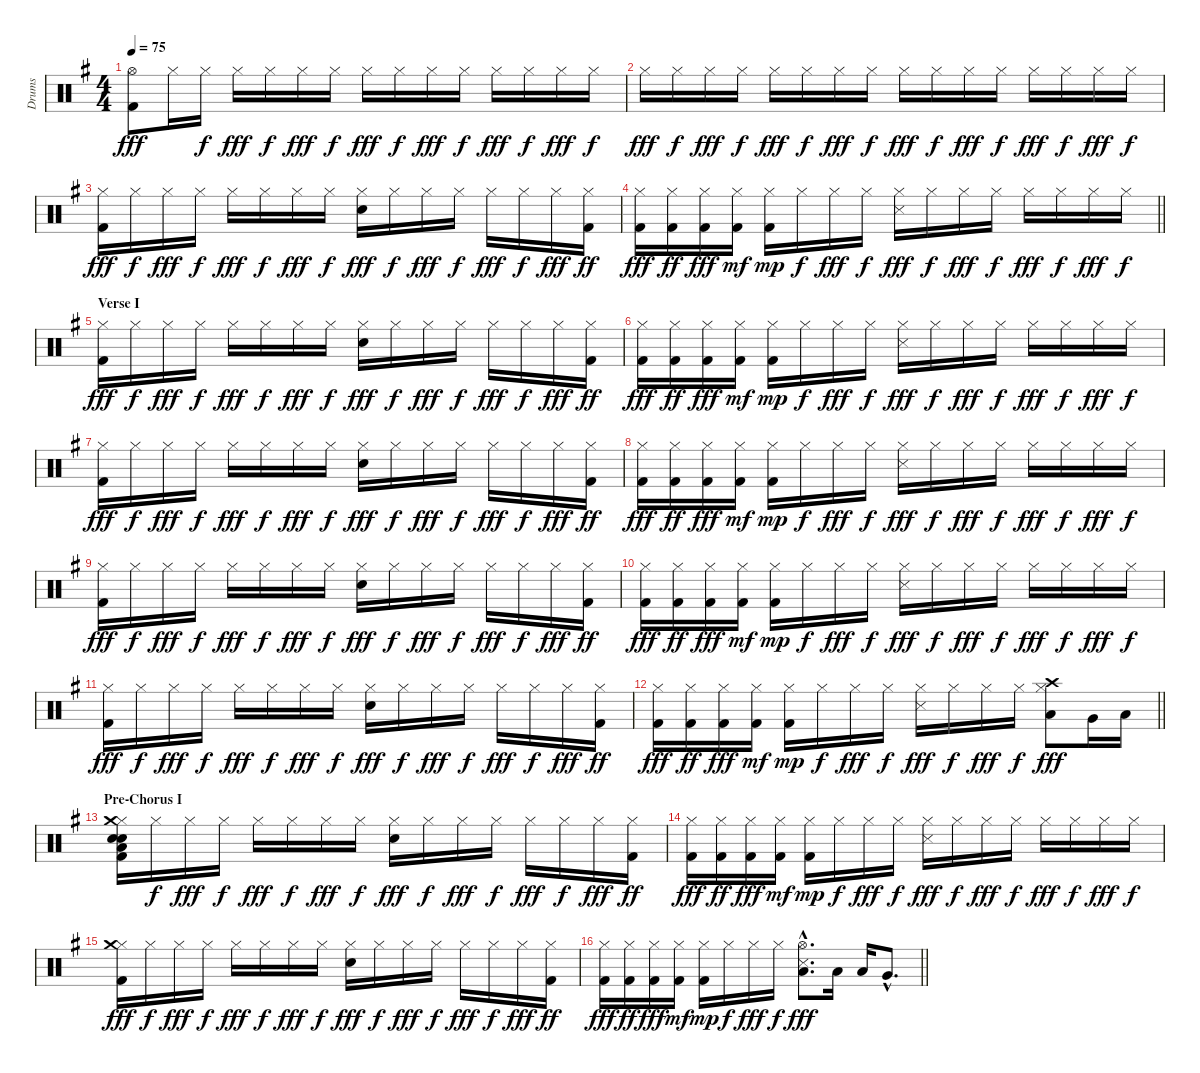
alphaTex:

\track ("Drums" "Drums") {instrument percussion}
\staff {score}
\articulation defaults
\ts (4 4)
\tempo 75
\clef neutral
\ks g
("Hi-Hat (open)" "Kick (hit) 2").8{dy fff} "Hi-Hat (closed)".16 "Hi-Hat (closed)".16{dy f} "Hi-Hat (closed)".16{dy fff} "Hi-Hat (closed)".16{dy f} "Hi-Hat (closed)".16{dy fff} "Hi-Hat (closed)".16{dy f} "Hi-Hat (closed)".16{dy fff} "Hi-Hat (closed)".16{dy f} "Hi-Hat (closed)".16{dy fff} "Hi-Hat (closed)".16{dy f} "Hi-Hat (closed)".16{dy fff} "Hi-Hat (closed)".16{dy f} "Hi-Hat (closed)".16{dy fff} "Hi-Hat (closed)".16{dy f} |
"Hi-Hat (closed)".16{dy fff} "Hi-Hat (closed)".16{dy f} "Hi-Hat (closed)".16{dy fff} "Hi-Hat (closed)".16{dy f} "Hi-Hat (closed)".16{dy fff} "Hi-Hat (closed)".16{dy f} "Hi-Hat (closed)".16{dy fff} "Hi-Hat (closed)".16{dy f} "Hi-Hat (closed)".16{dy fff} "Hi-Hat (closed)".16{dy f} "Hi-Hat (closed)".16{dy fff} "Hi-Hat (closed)".16{dy f} "Hi-Hat (closed)".16{dy fff} "Hi-Hat (closed)".16{dy f} "Hi-Hat (closed)".16{dy fff} "Hi-Hat (closed)".16{dy f} |
("Hi-Hat (closed)" "Kick (hit) 2").16{dy fff} "Hi-Hat (closed)".16{dy f} "Hi-Hat (closed)".16{dy fff} "Hi-Hat (closed)".16{dy f} "Hi-Hat (closed)".16{dy fff} "Hi-Hat (closed)".16{dy f} "Hi-Hat (closed)".16{dy fff} "Hi-Hat (closed)".16{dy f} ("Hi-Hat (closed)" "Snare (hit) 2").16{dy fff} "Hi-Hat (closed)".16{dy f} "Hi-Hat (closed)".16{dy fff} "Hi-Hat (closed)".16{dy f} "Hi-Hat (closed)".16{dy fff} "Hi-Hat (closed)".16{dy f} "Hi-Hat (closed)".16{dy fff} ("Hi-Hat (closed)" "Kick (hit) 2").16{dy ff} |
\barLineRight lightlight
("Hi-Hat (closed)" "Kick (hit) 2").16{dy fff} ("Hi-Hat (closed)" "Kick (hit) 2").16{dy ff} ("Hi-Hat (closed)" "Kick (hit) 2").16{dy fff} ("Hi-Hat (closed)" "Kick (hit) 2").16{dy mf} ("Hi-Hat (closed)" "Kick (hit) 2").16{dy mp} "Hi-Hat (closed)".16{dy f} "Hi-Hat (closed)".16{dy fff} "Hi-Hat (closed)".16{dy f} ("Hi-Hat (closed)" "Snare (side stick) 3").16{dy fff} "Hi-Hat (closed)".16{dy f} "Hi-Hat (closed)".16{dy fff} "Hi-Hat (closed)".16{dy f} "Hi-Hat (closed)".16{dy fff} "Hi-Hat (closed)".16{dy f} "Hi-Hat (closed)".16{dy fff} "Hi-Hat (closed)".16{dy f} |
\section ("" "Verse I")
("Hi-Hat (closed)" "Kick (hit) 2").16{dy fff} "Hi-Hat (closed)".16{dy f} "Hi-Hat (closed)".16{dy fff} "Hi-Hat (closed)".16{dy f} "Hi-Hat (closed)".16{dy fff} "Hi-Hat (closed)".16{dy f} "Hi-Hat (closed)".16{dy fff} "Hi-Hat (closed)".16{dy f} ("Hi-Hat (closed)" "Snare (hit) 2").16{dy fff} "Hi-Hat (closed)".16{dy f} "Hi-Hat (closed)".16{dy fff} "Hi-Hat (closed)".16{dy f} "Hi-Hat (closed)".16{dy fff} "Hi-Hat (closed)".16{dy f} "Hi-Hat (closed)".16{dy fff} ("Hi-Hat (closed)" "Kick (hit) 2").16{dy ff} |
("Hi-Hat (closed)" "Kick (hit) 2").16{dy fff} ("Hi-Hat (closed)" "Kick (hit) 2").16{dy ff} ("Hi-Hat (closed)" "Kick (hit) 2").16{dy fff} ("Hi-Hat (closed)" "Kick (hit) 2").16{dy mf} ("Hi-Hat (closed)" "Kick (hit) 2").16{dy mp} "Hi-Hat (closed)".16{dy f} "Hi-Hat (closed)".16{dy fff} "Hi-Hat (closed)".16{dy f} ("Hi-Hat (closed)" "Snare (side stick) 3").16{dy fff} "Hi-Hat (closed)".16{dy f} "Hi-Hat (closed)".16{dy fff} "Hi-Hat (closed)".16{dy f} "Hi-Hat (closed)".16{dy fff} "Hi-Hat (closed)".16{dy f} "Hi-Hat (closed)".16{dy fff} "Hi-Hat (closed)".16{dy f} |
("Hi-Hat (closed)" "Kick (hit) 2").16{dy fff} "Hi-Hat (closed)".16{dy f} "Hi-Hat (closed)".16{dy fff} "Hi-Hat (closed)".16{dy f} "Hi-Hat (closed)".16{dy fff} "Hi-Hat (closed)".16{dy f} "Hi-Hat (closed)".16{dy fff} "Hi-Hat (closed)".16{dy f} ("Hi-Hat (closed)" "Snare (hit) 2").16{dy fff} "Hi-Hat (closed)".16{dy f} "Hi-Hat (closed)".16{dy fff} "Hi-Hat (closed)".16{dy f} "Hi-Hat (closed)".16{dy fff} "Hi-Hat (closed)".16{dy f} "Hi-Hat (closed)".16{dy fff} ("Hi-Hat (closed)" "Kick (hit) 2").16{dy ff} |
("Hi-Hat (closed)" "Kick (hit) 2").16{dy fff} ("Hi-Hat (closed)" "Kick (hit) 2").16{dy ff} ("Hi-Hat (closed)" "Kick (hit) 2").16{dy fff} ("Hi-Hat (closed)" "Kick (hit) 2").16{dy mf} ("Hi-Hat (closed)" "Kick (hit) 2").16{dy mp} "Hi-Hat (closed)".16{dy f} "Hi-Hat (closed)".16{dy fff} "Hi-Hat (closed)".16{dy f} ("Hi-Hat (closed)" "Snare (side stick) 3").16{dy fff} "Hi-Hat (closed)".16{dy f} "Hi-Hat (closed)".16{dy fff} "Hi-Hat (closed)".16{dy f} "Hi-Hat (closed)".16{dy fff} "Hi-Hat (closed)".16{dy f} "Hi-Hat (closed)".16{dy fff} "Hi-Hat (closed)".16{dy f} |
("Hi-Hat (closed)" "Kick (hit) 2").16{dy fff} "Hi-Hat (closed)".16{dy f} "Hi-Hat (closed)".16{dy fff} "Hi-Hat (closed)".16{dy f} "Hi-Hat (closed)".16{dy fff} "Hi-Hat (closed)".16{dy f} "Hi-Hat (closed)".16{dy fff} "Hi-Hat (closed)".16{dy f} ("Hi-Hat (closed)" "Snare (hit) 2").16{dy fff} "Hi-Hat (closed)".16{dy f} "Hi-Hat (closed)".16{dy fff} "Hi-Hat (closed)".16{dy f} "Hi-Hat (closed)".16{dy fff} "Hi-Hat (closed)".16{dy f} "Hi-Hat (closed)".16{dy fff} ("Hi-Hat (closed)" "Kick (hit) 2").16{dy ff} |
("Hi-Hat (closed)" "Kick (hit) 2").16{dy fff} ("Hi-Hat (closed)" "Kick (hit) 2").16{dy ff} ("Hi-Hat (closed)" "Kick (hit) 2").16{dy fff} ("Hi-Hat (closed)" "Kick (hit) 2").16{dy mf} ("Hi-Hat (closed)" "Kick (hit) 2").16{dy mp} "Hi-Hat (closed)".16{dy f} "Hi-Hat (closed)".16{dy fff} "Hi-Hat (closed)".16{dy f} ("Hi-Hat (closed)" "Snare (side stick) 3").16{dy fff} "Hi-Hat (closed)".16{dy f} "Hi-Hat (closed)".16{dy fff} "Hi-Hat (closed)".16{dy f} "Hi-Hat (closed)".16{dy fff} "Hi-Hat (closed)".16{dy f} "Hi-Hat (closed)".16{dy fff} "Hi-Hat (closed)".16{dy f} |
("Hi-Hat (closed)" "Kick (hit) 2").16{dy fff} "Hi-Hat (closed)".16{dy f} "Hi-Hat (closed)".16{dy fff} "Hi-Hat (closed)".16{dy f} "Hi-Hat (closed)".16{dy fff} "Hi-Hat (closed)".16{dy f} "Hi-Hat (closed)".16{dy fff} "Hi-Hat (closed)".16{dy f} ("Hi-Hat (closed)" "Snare (hit) 2").16{dy fff} "Hi-Hat (closed)".16{dy f} "Hi-Hat (closed)".16{dy fff} "Hi-Hat (closed)".16{dy f} "Hi-Hat (closed)".16{dy fff} "Hi-Hat (closed)".16{dy f} "Hi-Hat (closed)".16{dy fff} ("Hi-Hat (closed)" "Kick (hit) 2").16{dy ff} |
\barLineRight lightlight
("Hi-Hat (closed)" "Kick (hit) 2").16{dy fff} ("Hi-Hat (closed)" "Kick (hit) 2").16{dy ff} ("Hi-Hat (closed)" "Kick (hit) 2").16{dy fff} ("Hi-Hat (closed)" "Kick (hit) 2").16{dy mf} ("Hi-Hat (closed)" "Kick (hit) 2").16{dy mp} "Hi-Hat (closed)".16{dy f} "Hi-Hat (closed)".16{dy fff} "Hi-Hat (closed)".16{dy f} ("Hi-Hat (closed)" "Snare (side stick) 3").16{dy fff} "Hi-Hat (closed)".16{dy f} "Hi-Hat (closed)".16{dy fff} "Hi-Hat (closed)".16{dy f} ("Hi-Hat (closed)" "Crash high (hit)" "Low Tom (hit)").8{dy fff} "Very Low Tom (hit)".16 "Low Floor Tom (hit)".16 |
\section ("" "Pre-Chorus I")
("Hi-Hat (closed)" "Crash medium (hit)" "Low Tom (hit)" "Electric Snare (hit)" "Snare (hit) 2" "Kick (hit) 2").16 "Hi-Hat (closed)".16{dy f} "Hi-Hat (closed)".16{dy fff} "Hi-Hat (closed)".16{dy f} "Hi-Hat (closed)".16{dy fff} "Hi-Hat (closed)".16{dy f} "Hi-Hat (closed)".16{dy fff} "Hi-Hat (closed)".16{dy f} ("Hi-Hat (closed)" "Snare (hit) 2").16{dy fff} "Hi-Hat (closed)".16{dy f} "Hi-Hat (closed)".16{dy fff} "Hi-Hat (closed)".16{dy f} "Hi-Hat (closed)".16{dy fff} "Hi-Hat (closed)".16{dy f} "Hi-Hat (closed)".16{dy fff} ("Hi-Hat (closed)" "Kick (hit) 2").16{dy ff} |
("Hi-Hat (closed)" "Kick (hit) 2").16{dy fff} ("Hi-Hat (closed)" "Kick (hit) 2").16{dy ff} ("Hi-Hat (closed)" "Kick (hit) 2").16{dy fff} ("Hi-Hat (closed)" "Kick (hit) 2").16{dy mf} ("Hi-Hat (closed)" "Kick (hit) 2").16{dy mp} "Hi-Hat (closed)".16{dy f} "Hi-Hat (closed)".16{dy fff} "Hi-Hat (closed)".16{dy f} ("Hi-Hat (closed)" "Snare (side stick) 3").16{dy fff} "Hi-Hat (closed)".16{dy f} "Hi-Hat (closed)".16{dy fff} "Hi-Hat (closed)".16{dy f} "Hi-Hat (closed)".16{dy fff} "Hi-Hat (closed)".16{dy f} "Hi-Hat (closed)".16{dy fff} "Hi-Hat (closed)".16{dy f} |
("Hi-Hat (closed)" "Crash medium (hit)" "Kick (hit) 2").16{dy fff} "Hi-Hat (closed)".16{dy f} "Hi-Hat (closed)".16{dy fff} "Hi-Hat (closed)".16{dy f} "Hi-Hat (closed)".16{dy fff} "Hi-Hat (closed)".16{dy f} "Hi-Hat (closed)".16{dy fff} "Hi-Hat (closed)".16{dy f} ("Hi-Hat (closed)" "Snare (hit) 2").16{dy fff} "Hi-Hat (closed)".16{dy f} "Hi-Hat (closed)".16{dy fff} "Hi-Hat (closed)".16{dy f} "Hi-Hat (closed)".16{dy fff} "Hi-Hat (closed)".16{dy f} "Hi-Hat (closed)".16{dy fff} ("Hi-Hat (closed)" "Kick (hit) 2").16{dy ff} |
\barLineRight lightlight
("Hi-Hat (closed)" "Kick (hit) 2").16{dy fff} ("Hi-Hat (closed)" "Kick (hit) 2").16{dy ff} ("Hi-Hat (closed)" "Kick (hit) 2").16{dy fff} ("Hi-Hat (closed)" "Kick (hit) 2").16{dy mf} ("Hi-Hat (closed)" "Kick (hit) 2").16{dy mp} "Hi-Hat (closed)".16{dy f} "Hi-Hat (closed)".16{dy fff} "Hi-Hat (closed)".16{dy f} ("Hi-Hat (open)"{hac} "Low Tom (hit)"{hac} "Snare (side stick) 3"{hac}).8{d dy fff} "Low Tom (hit)".16 "Low Tom (hit)".16 "Very Low Tom (hit)"{hac}.8{d}
